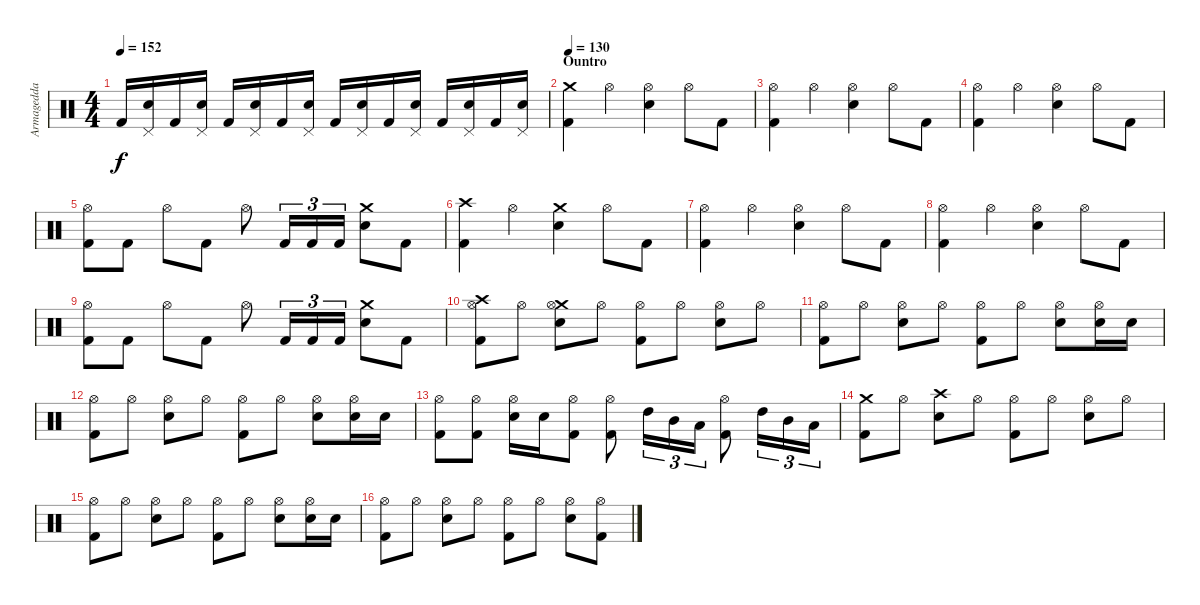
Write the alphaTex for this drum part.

\track ("Armagedda" "Armagedda") {instrument percussion}
\staff {score}
\articulation defaults
\ts (4 4)
\tempo 152
\clef neutral
\ks c "Kick (hit) 2".16{dy f}
("Pedal Hi-Hat (hit)" "Electric Snare (hit)").16 "Kick (hit) 2".16 ("Pedal Hi-Hat (hit)" "Electric Snare (hit)").16 "Kick (hit) 2".16 ("Pedal Hi-Hat (hit)" "Electric Snare (hit)").16 "Kick (hit) 2".16 ("Pedal Hi-Hat (hit)" "Electric Snare (hit)").16 "Kick (hit) 2".16 ("Pedal Hi-Hat (hit)" "Electric Snare (hit)").16 "Kick (hit) 2".16 ("Pedal Hi-Hat (hit)" "Electric Snare (hit)").16 "Kick (hit) 2".16 ("Pedal Hi-Hat (hit)" "Electric Snare (hit)").16 "Kick (hit) 2".16 ("Pedal Hi-Hat (hit)" "Electric Snare (hit)").16 |
\section ("" "Ountro ")
\tempo 130
("Crash medium (hit)" "Kick (hit) 2").4 "Hi-Hat (open)".4 ("Hi-Hat (open)" "Electric Snare (hit)").4 "Hi-Hat (open)".8 "Kick (hit) 2".8 |
("Hi-Hat (open)" "Kick (hit) 2").4 "Hi-Hat (open)".4 ("Hi-Hat (open)" "Electric Snare (hit)").4 "Hi-Hat (open)".8 "Kick (hit) 2".8 |
("Hi-Hat (open)" "Kick (hit) 2").4 "Hi-Hat (open)".4 ("Hi-Hat (open)" "Electric Snare (hit)").4 "Hi-Hat (open)".8 "Kick (hit) 2".8 |
("Hi-Hat (open)" "Kick (hit) 2").8 "Kick (hit) 2".8 "Hi-Hat (open)".8 "Kick (hit) 2".8 "Hi-Hat (open)".8 "Kick (hit) 2".16{tu (3 2)} "Kick (hit) 2".16{tu (3 2)} "Kick (hit) 2".16{tu (3 2)} ("Crash medium (hit)" "Electric Snare (hit)").8 "Kick (hit) 2".8 |
("Crash high (hit)" "Kick (hit) 2").4 "Hi-Hat (open)".4 ("Crash medium (hit)" "Electric Snare (hit)").4 "Hi-Hat (open)".8 "Kick (hit) 2".8 |
("Hi-Hat (open)" "Kick (hit) 2").4 "Hi-Hat (open)".4 ("Hi-Hat (open)" "Electric Snare (hit)").4 "Hi-Hat (open)".8 "Kick (hit) 2".8 |
("Hi-Hat (open)" "Kick (hit) 2").4 "Hi-Hat (open)".4 ("Hi-Hat (open)" "Electric Snare (hit)").4 "Hi-Hat (open)".8 "Kick (hit) 2".8 |
("Hi-Hat (open)" "Kick (hit) 2").8 "Kick (hit) 2".8 "Hi-Hat (open)".8 "Kick (hit) 2".8 "Hi-Hat (open)".8 "Kick (hit) 2".16{tu (3 2)} "Kick (hit) 2".16{tu (3 2)} "Kick (hit) 2".16{tu (3 2)} ("Crash medium (hit)" "Electric Snare (hit)").8 "Kick (hit) 2".8 |
("Crash high (hit)" "Hi-Hat (open)" "Kick (hit) 2").8 "Hi-Hat (open)".8 ("Crash medium (hit)" "Hi-Hat (open)" "Electric Snare (hit)").8 "Hi-Hat (open)".8 ("Hi-Hat (open)" "Kick (hit) 2").8 "Hi-Hat (open)".8 ("Hi-Hat (open)" "Electric Snare (hit)").8 "Hi-Hat (open)".8 |
("Hi-Hat (open)" "Kick (hit) 2").8 "Hi-Hat (open)".8 ("Hi-Hat (open)" "Electric Snare (hit)").8 "Hi-Hat (open)".8 ("Hi-Hat (open)" "Kick (hit) 2").8 "Hi-Hat (open)".8 ("Hi-Hat (open)" "Electric Snare (hit)").8 ("Hi-Hat (open)" "Electric Snare (hit)").16 "Electric Snare (hit)".16 |
("Hi-Hat (open)" "Kick (hit) 2").8 "Hi-Hat (open)".8 ("Hi-Hat (open)" "Electric Snare (hit)").8 "Hi-Hat (open)".8 ("Hi-Hat (open)" "Kick (hit) 2").8 "Hi-Hat (open)".8 ("Hi-Hat (open)" "Electric Snare (hit)").8 ("Hi-Hat (open)" "Electric Snare (hit)").16 "Electric Snare (hit)".16 |
("Hi-Hat (open)" "Kick (hit) 2").8 ("Hi-Hat (open)" "Kick (hit) 2").8 ("Hi-Hat (open)" "Electric Snare (hit)").16 "Electric Snare (hit)".16 ("Hi-Hat (open)" "Kick (hit) 2").8 ("Hi-Hat (open)" "Kick (hit) 2").8 "High Tom (hit)".16{tu (3 2)} "Mid Tom (hit)".16{tu (3 2)} "Low Tom (hit)".16{tu (3 2)} ("Hi-Hat (open)" "Kick (hit) 2").8 "High Tom (hit)".16{tu (3 2)} "Mid Tom (hit)".16{tu (3 2)} "Low Tom (hit)".16{tu (3 2)} |
("Crash medium (hit)" "Kick (hit) 2").8 "Hi-Hat (open)".8 ("Crash high (hit)" "Electric Snare (hit)").8 "Hi-Hat (open)".8 ("Hi-Hat (open)" "Kick (hit) 2").8 "Hi-Hat (open)".8 ("Hi-Hat (open)" "Electric Snare (hit)").8 "Hi-Hat (open)".8 |
("Hi-Hat (open)" "Kick (hit) 2").8 "Hi-Hat (open)".8 ("Hi-Hat (open)" "Electric Snare (hit)").8 "Hi-Hat (open)".8 ("Hi-Hat (open)" "Kick (hit) 2").8 "Hi-Hat (open)".8 ("Hi-Hat (open)" "Electric Snare (hit)").8 ("Hi-Hat (open)" "Electric Snare (hit)").16 "Electric Snare (hit)".16 |
("Hi-Hat (open)" "Kick (hit) 2").8 "Hi-Hat (open)".8 ("Hi-Hat (open)" "Electric Snare (hit)").8 "Hi-Hat (open)".8 ("Hi-Hat (open)" "Kick (hit) 2").8 "Hi-Hat (open)".8 ("Hi-Hat (open)" "Electric Snare (hit)").8 ("Hi-Hat (open)" "Kick (hit) 2").8
